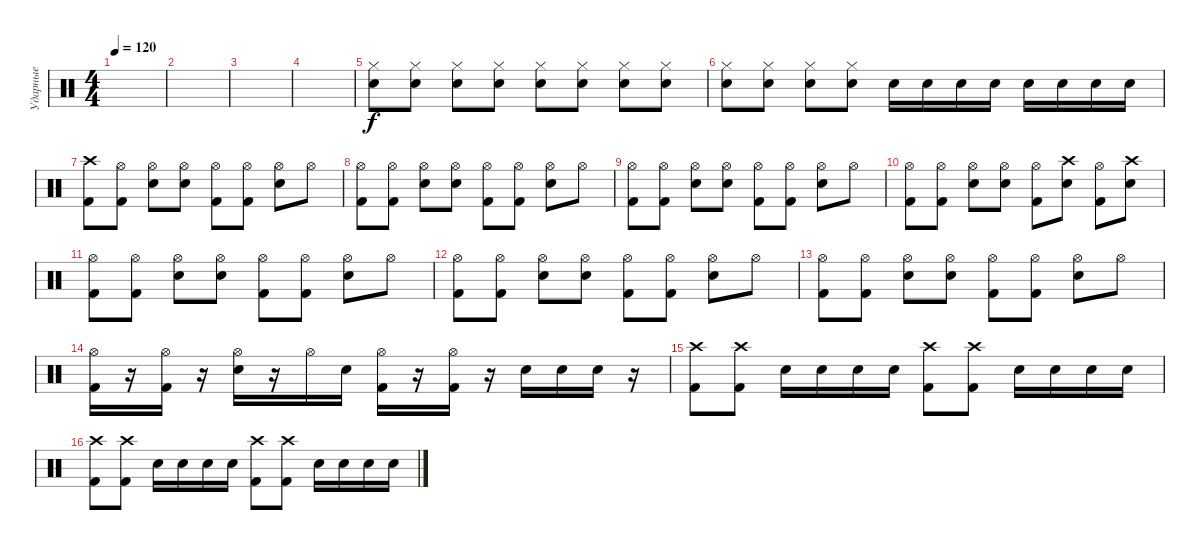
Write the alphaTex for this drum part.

\track ("Ударные" "Ударные") {instrument percussion}
\staff {score}
\articulation defaults
\ts (4 4)
\tempo 120
\clef neutral
\ks c
|
|
|
|
("Hi-Hat (closed)" "Snare (hit) 2").8 ("Hi-Hat (closed)" "Snare (hit) 2").8 ("Hi-Hat (closed)" "Snare (hit) 2").8 ("Hi-Hat (closed)" "Snare (hit) 2").8 ("Hi-Hat (closed)" "Snare (hit) 2").8 ("Hi-Hat (closed)" "Snare (hit) 2").8 ("Hi-Hat (closed)" "Snare (hit) 2").8 ("Hi-Hat (closed)" "Snare (hit) 2").8 |
("Hi-Hat (closed)" "Snare (hit) 2").8 ("Hi-Hat (closed)" "Snare (hit) 2").8 ("Hi-Hat (closed)" "Snare (hit) 2").8 ("Hi-Hat (closed)" "Snare (hit) 2").8 "Snare (hit) 2".16 "Snare (hit) 2".16 "Snare (hit) 2".16 "Snare (hit) 2".16 "Snare (hit) 2".16 "Snare (hit) 2".16 "Snare (hit) 2".16 "Snare (hit) 2".16 |
("Crash high (hit)" "Kick (hit) 2").8 ("Hi-Hat (open)" "Kick (hit) 2").8 ("Hi-Hat (open)" "Snare (hit) 2").8 ("Hi-Hat (open)" "Snare (hit) 2").8 ("Hi-Hat (open)" "Kick (hit) 2").8 ("Hi-Hat (open)" "Kick (hit) 2").8 ("Hi-Hat (open)" "Snare (hit) 2").8 "Hi-Hat (open)".8 |
("Hi-Hat (open)" "Kick (hit) 2").8 ("Hi-Hat (open)" "Kick (hit) 2").8 ("Hi-Hat (open)" "Snare (hit) 2").8 ("Hi-Hat (open)" "Snare (hit) 2").8 ("Hi-Hat (open)" "Kick (hit) 2").8 ("Hi-Hat (open)" "Kick (hit) 2").8 ("Hi-Hat (open)" "Snare (hit) 2").8 "Hi-Hat (open)".8 |
("Hi-Hat (open)" "Kick (hit) 2").8 ("Hi-Hat (open)" "Kick (hit) 2").8 ("Hi-Hat (open)" "Snare (hit) 2").8 ("Hi-Hat (open)" "Snare (hit) 2").8 ("Hi-Hat (open)" "Kick (hit) 2").8 ("Hi-Hat (open)" "Kick (hit) 2").8 ("Hi-Hat (open)" "Snare (hit) 2").8 "Hi-Hat (open)".8 |
("Hi-Hat (open)" "Kick (hit) 2").8 ("Hi-Hat (open)" "Kick (hit) 2").8 ("Hi-Hat (open)" "Snare (hit) 2").8 ("Hi-Hat (open)" "Snare (hit) 2").8 ("Hi-Hat (open)" "Kick (hit) 2").8 ("Crash high (hit)" "Snare (hit) 2").8 ("Hi-Hat (open)" "Kick (hit) 2").8 ("Crash high (hit)" "Snare (hit) 2").8 |
("Hi-Hat (open)" "Kick (hit) 2").8 ("Hi-Hat (open)" "Kick (hit) 2").8 ("Hi-Hat (open)" "Snare (hit) 2").8 ("Hi-Hat (open)" "Snare (hit) 2").8 ("Hi-Hat (open)" "Kick (hit) 2").8 ("Hi-Hat (open)" "Kick (hit) 2").8 ("Hi-Hat (open)" "Snare (hit) 2").8 "Hi-Hat (open)".8 |
("Hi-Hat (open)" "Kick (hit) 2").8 ("Hi-Hat (open)" "Kick (hit) 2").8 ("Hi-Hat (open)" "Snare (hit) 2").8 ("Hi-Hat (open)" "Snare (hit) 2").8 ("Hi-Hat (open)" "Kick (hit) 2").8 ("Hi-Hat (open)" "Kick (hit) 2").8 ("Hi-Hat (open)" "Snare (hit) 2").8 "Hi-Hat (open)".8 |
("Hi-Hat (open)" "Kick (hit) 2").8 ("Hi-Hat (open)" "Kick (hit) 2").8 ("Hi-Hat (open)" "Snare (hit) 2").8 ("Hi-Hat (open)" "Snare (hit) 2").8 ("Hi-Hat (open)" "Kick (hit) 2").8 ("Hi-Hat (open)" "Kick (hit) 2").8 ("Hi-Hat (open)" "Snare (hit) 2").8 "Hi-Hat (open)".8 |
("Hi-Hat (open)" "Kick (hit) 2").16 r.16 ("Hi-Hat (open)" "Kick (hit) 2").16 r.16 ("Hi-Hat (open)" "Snare (hit) 2").16 r.16 "Hi-Hat (open)".16 "Snare (hit) 2".16 ("Hi-Hat (open)" "Kick (hit) 2").16 r.16 ("Hi-Hat (open)" "Kick (hit) 2").16 r.16 "Snare (hit) 2".16 "Snare (hit) 2".16 "Snare (hit) 2".16 r.16 |
("Crash high (hit)" "Kick (hit) 2").8 ("Crash high (hit)" "Kick (hit) 2").8 "Snare (hit) 2".16 "Snare (hit) 2".16 "Snare (hit) 2".16 "Snare (hit) 2".16 ("Crash high (hit)" "Kick (hit) 2").8 ("Crash high (hit)" "Kick (hit) 2").8 "Snare (hit) 2".16 "Snare (hit) 2".16 "Snare (hit) 2".16 "Snare (hit) 2".16 |
("Crash high (hit)" "Kick (hit) 2").8 ("Crash high (hit)" "Kick (hit) 2").8 "Snare (hit) 2".16 "Snare (hit) 2".16 "Snare (hit) 2".16 "Snare (hit) 2".16 ("Crash high (hit)" "Kick (hit) 2").8 ("Crash high (hit)" "Kick (hit) 2").8 "Snare (hit) 2".16 "Snare (hit) 2".16 "Snare (hit) 2".16 "Snare (hit) 2".16
